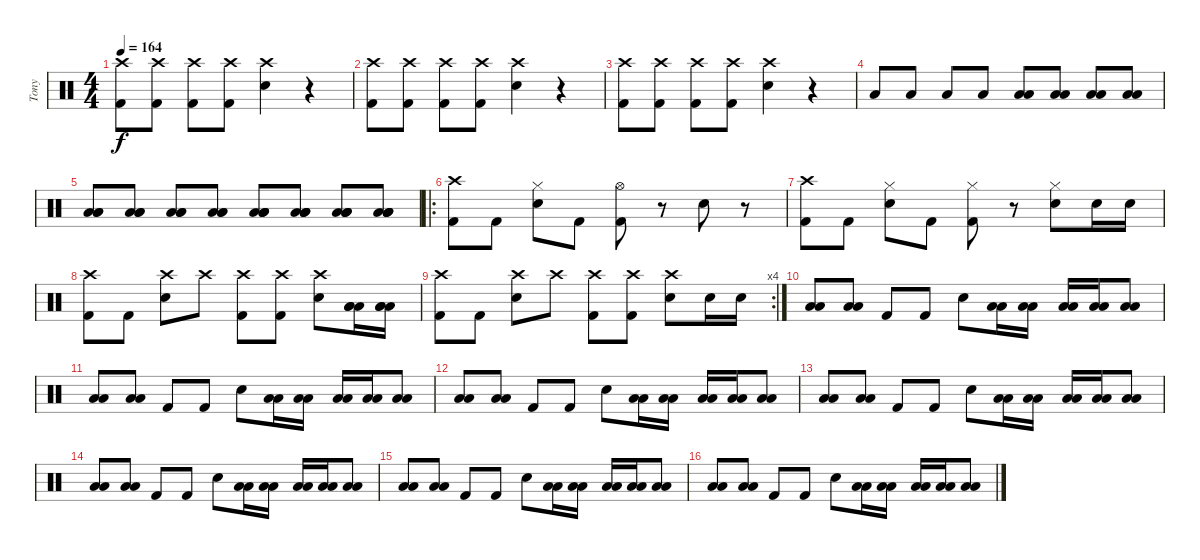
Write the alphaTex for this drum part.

\track ("Tony" "Tony") {instrument percussion}
\staff {score}
\articulation defaults
\ts (4 4)
\tempo 164
\clef neutral
\ks c
("Crash high (hit)" "Kick (hit) 2").8{dy f} ("Crash high (hit)" "Kick (hit) 2").8 ("Crash high (hit)" "Kick (hit) 2").8 ("Crash high (hit)" "Kick (hit) 2").8 ("Crash high (hit)" "Snare (hit) 2").4 r.4 |
("Crash high (hit)" "Kick (hit) 2").8 ("Crash high (hit)" "Kick (hit) 2").8 ("Crash high (hit)" "Kick (hit) 2").8 ("Crash high (hit)" "Kick (hit) 2").8 ("Crash high (hit)" "Snare (hit) 2").4 r.4 |
("Crash high (hit)" "Kick (hit) 2").8 ("Crash high (hit)" "Kick (hit) 2").8 ("Crash high (hit)" "Kick (hit) 2").8 ("Crash high (hit)" "Kick (hit) 2").8 ("Crash high (hit)" "Snare (hit) 2").4 r.4 |
"Low Tom (hit)".8 "Low Tom (hit)".8 "Low Tom (hit)".8 "Low Tom (hit)".8 ("Low Tom (hit)" "Low Tom (hit)").8 ("Low Tom (hit)" "Low Tom (hit)").8 ("Low Tom (hit)" "Low Tom (hit)").8 ("Low Tom (hit)" "Low Tom (hit)").8 |
("Low Tom (hit)" "Low Tom (hit)" "Low Floor Tom (hit)").8 ("Low Tom (hit)" "Low Tom (hit)" "Low Floor Tom (hit)").8 ("Low Tom (hit)" "Low Tom (hit)" "Low Floor Tom (hit)").8 ("Low Tom (hit)" "Low Tom (hit)" "Low Floor Tom (hit)").8 ("Low Tom (hit)" "Low Tom (hit)" "Low Floor Tom (hit)" "Low Floor Tom (hit)").8 ("Low Tom (hit)" "Low Tom (hit)" "Low Floor Tom (hit)" "Low Floor Tom (hit)").8 ("Low Tom (hit)" "Low Tom (hit)" "Low Floor Tom (hit)" "Low Floor Tom (hit)").8 ("Low Tom (hit)" "Low Tom (hit)" "Low Floor Tom (hit)" "Low Floor Tom (hit)").8 |
\ro
("Kick (hit) 2" "Crash high (hit)").8 "Kick (hit) 2".8 ("Snare (hit) 2" "Hi-Hat (closed)").8 "Kick (hit) 2".8 ("Kick (hit) 2" "Hi-Hat (open)").8 r.8 "Snare (hit) 2".8 r.8 |
("Kick (hit) 2" "Crash high (hit)").8 "Kick (hit) 2".8 ("Snare (hit) 2" "Hi-Hat (closed)").8 "Kick (hit) 2".8 ("Kick (hit) 2" "Hi-Hat (closed)").8 r.8 ("Snare (hit) 2" "Hi-Hat (closed)").8 "Snare (hit) 2".16 "Snare (hit) 2".16 |
("Kick (hit) 2" "Crash high (hit)").8 "Kick (hit) 2".8 ("Crash high (hit)" "Snare (hit) 2").8 "Crash high (hit)".8 ("Kick (hit) 2" "Crash high (hit)").8 ("Kick (hit) 2" "Crash high (hit)").8 ("Crash high (hit)" "Snare (hit) 2").8 ("Low Floor Tom (hit)" "Low Floor Tom (hit)" "Low Floor Tom (hit)").16 ("Low Floor Tom (hit)" "Low Floor Tom (hit)" "Low Floor Tom (hit)").16 |
\rc 4
("Kick (hit) 2" "Crash high (hit)").8 "Kick (hit) 2".8 ("Crash high (hit)" "Snare (hit) 2").8 "Crash high (hit)".8 ("Kick (hit) 2" "Crash high (hit)").8 ("Kick (hit) 2" "Crash high (hit)").8 ("Crash high (hit)" "Snare (hit) 2").8 "Snare (hit) 2".16 "Snare (hit) 2".16 |
("Low Floor Tom (hit)" "Low Tom (hit)").8 ("Low Floor Tom (hit)" "Low Tom (hit)").8 "Kick (hit) 2".8 "Kick (hit) 2".8 "Snare (hit) 2".8 ("Low Tom (hit)" "Low Tom (hit)").16 ("Low Tom (hit)" "Low Tom (hit)").16 ("Low Floor Tom (hit)" "Low Floor Tom (hit)").16 ("Low Floor Tom (hit)" "Low Floor Tom (hit)").16 ("Low Floor Tom (hit)" "Low Floor Tom (hit)").8 |
("Low Floor Tom (hit)" "Low Tom (hit)").8 ("Low Floor Tom (hit)" "Low Tom (hit)").8 "Kick (hit) 2".8 "Kick (hit) 2".8 "Snare (hit) 2".8 ("Low Tom (hit)" "Low Tom (hit)").16 ("Low Tom (hit)" "Low Tom (hit)").16 ("Low Floor Tom (hit)" "Low Floor Tom (hit)").16 ("Low Floor Tom (hit)" "Low Floor Tom (hit)").16 ("Low Floor Tom (hit)" "Low Floor Tom (hit)").8 |
("Low Floor Tom (hit)" "Low Tom (hit)").8 ("Low Floor Tom (hit)" "Low Tom (hit)").8 "Kick (hit) 2".8 "Kick (hit) 2".8 "Snare (hit) 2".8 ("Low Tom (hit)" "Low Tom (hit)").16 ("Low Tom (hit)" "Low Tom (hit)").16 ("Low Floor Tom (hit)" "Low Floor Tom (hit)").16 ("Low Floor Tom (hit)" "Low Floor Tom (hit)").16 ("Low Floor Tom (hit)" "Low Floor Tom (hit)").8 |
("Low Floor Tom (hit)" "Low Tom (hit)").8 ("Low Floor Tom (hit)" "Low Tom (hit)").8 "Kick (hit) 2".8 "Kick (hit) 2".8 "Snare (hit) 2".8 ("Low Tom (hit)" "Low Tom (hit)").16 ("Low Tom (hit)" "Low Tom (hit)").16 ("Low Floor Tom (hit)" "Low Floor Tom (hit)").16 ("Low Floor Tom (hit)" "Low Floor Tom (hit)").16 ("Low Floor Tom (hit)" "Low Floor Tom (hit)").8 |
("Low Floor Tom (hit)" "Low Tom (hit)").8 ("Low Floor Tom (hit)" "Low Tom (hit)").8 "Kick (hit) 2".8 "Kick (hit) 2".8 "Snare (hit) 2".8 ("Low Tom (hit)" "Low Tom (hit)").16 ("Low Tom (hit)" "Low Tom (hit)").16 ("Low Floor Tom (hit)" "Low Floor Tom (hit)").16 ("Low Floor Tom (hit)" "Low Floor Tom (hit)").16 ("Low Floor Tom (hit)" "Low Floor Tom (hit)").8 |
("Low Floor Tom (hit)" "Low Tom (hit)").8 ("Low Floor Tom (hit)" "Low Tom (hit)").8 "Kick (hit) 2".8 "Kick (hit) 2".8 "Snare (hit) 2".8 ("Low Tom (hit)" "Low Tom (hit)").16 ("Low Tom (hit)" "Low Tom (hit)").16 ("Low Floor Tom (hit)" "Low Floor Tom (hit)").16 ("Low Floor Tom (hit)" "Low Floor Tom (hit)").16 ("Low Floor Tom (hit)" "Low Floor Tom (hit)").8 |
("Low Floor Tom (hit)" "Low Tom (hit)").8 ("Low Floor Tom (hit)" "Low Tom (hit)").8 "Kick (hit) 2".8 "Kick (hit) 2".8 "Snare (hit) 2".8 ("Low Tom (hit)" "Low Tom (hit)").16 ("Low Tom (hit)" "Low Tom (hit)").16 ("Low Floor Tom (hit)" "Low Floor Tom (hit)").16 ("Low Floor Tom (hit)" "Low Floor Tom (hit)").16 ("Low Floor Tom (hit)" "Low Floor Tom (hit)").8
